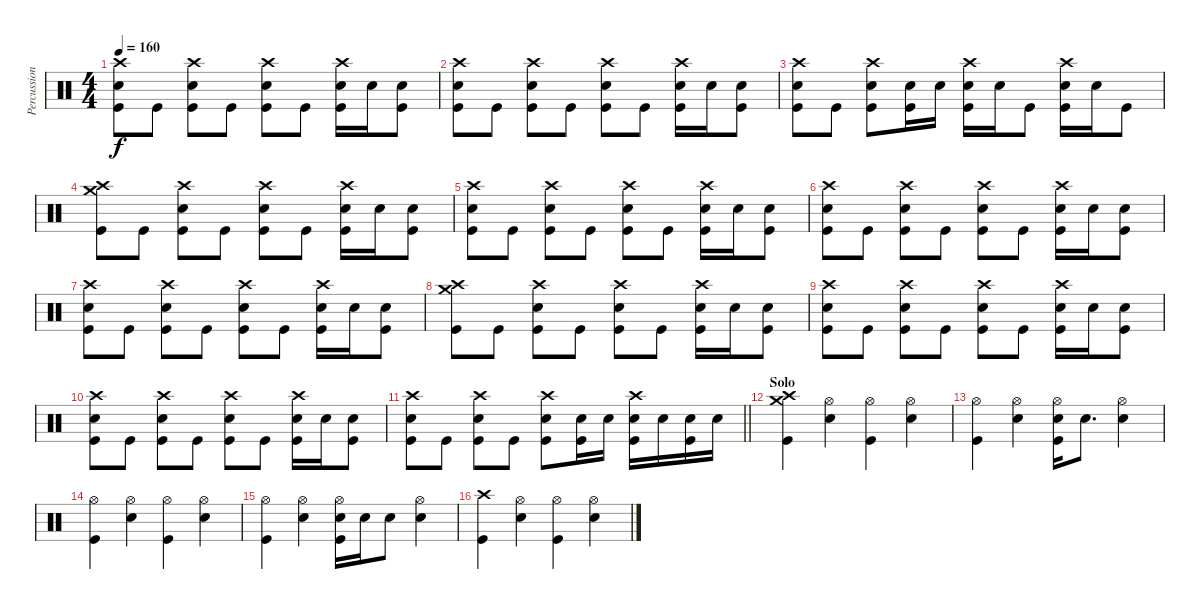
\track ("Percussion" "Percussion") {instrument percussion}
\staff {score}
\articulation defaults
\ts (4 4)
\tempo 160
\clef neutral
\ks c
("Crash high (hit)" "Electric Snare (hit)" "Kick (hit)").8{dy f} "Kick (hit)".8 ("Crash high (hit)" "Electric Snare (hit)" "Kick (hit)").8 "Kick (hit)".8 ("Crash high (hit)" "Electric Snare (hit)" "Kick (hit)").8 "Kick (hit)".8 ("Crash high (hit)" "Electric Snare (hit)" "Kick (hit)").16 "Electric Snare (hit)".16 ("Electric Snare (hit)" "Kick (hit)").8 |
("Crash high (hit)" "Electric Snare (hit)" "Kick (hit)").8 "Kick (hit)".8 ("Crash high (hit)" "Electric Snare (hit)" "Kick (hit)").8 "Kick (hit)".8 ("Crash high (hit)" "Electric Snare (hit)" "Kick (hit)").8 "Kick (hit)".8 ("Crash high (hit)" "Electric Snare (hit)" "Kick (hit)").16 "Electric Snare (hit)".16 ("Electric Snare (hit)" "Kick (hit)").8 |
("Crash high (hit)" "Electric Snare (hit)" "Kick (hit)").8 "Kick (hit)".8 ("Crash high (hit)" "Electric Snare (hit)" "Kick (hit)").8 ("Electric Snare (hit)" "Kick (hit)").16 "Electric Snare (hit)".16 ("Crash high (hit)" "Electric Snare (hit)" "Kick (hit)").16 "Electric Snare (hit)".16 "Kick (hit)".8 ("Crash high (hit)" "Electric Snare (hit)" "Kick (hit)").16 "Electric Snare (hit)".16 "Kick (hit)".8 |
("Crash high (hit)" "Crash medium (hit)" "Kick (hit)").8 "Kick (hit)".8 ("Crash high (hit)" "Electric Snare (hit)" "Kick (hit)").8 "Kick (hit)".8 ("Crash high (hit)" "Electric Snare (hit)" "Kick (hit)").8 "Kick (hit)".8 ("Crash high (hit)" "Electric Snare (hit)" "Kick (hit)").16 "Electric Snare (hit)".16 ("Electric Snare (hit)" "Kick (hit)").8 |
("Crash high (hit)" "Electric Snare (hit)" "Kick (hit)").8 "Kick (hit)".8 ("Crash high (hit)" "Electric Snare (hit)" "Kick (hit)").8 "Kick (hit)".8 ("Crash high (hit)" "Electric Snare (hit)" "Kick (hit)").8 "Kick (hit)".8 ("Crash high (hit)" "Electric Snare (hit)" "Kick (hit)").16 "Electric Snare (hit)".16 ("Electric Snare (hit)" "Kick (hit)").8 |
("Crash high (hit)" "Electric Snare (hit)" "Kick (hit)").8 "Kick (hit)".8 ("Crash high (hit)" "Electric Snare (hit)" "Kick (hit)").8 "Kick (hit)".8 ("Crash high (hit)" "Electric Snare (hit)" "Kick (hit)").8 "Kick (hit)".8 ("Crash high (hit)" "Electric Snare (hit)" "Kick (hit)").16 "Electric Snare (hit)".16 ("Electric Snare (hit)" "Kick (hit)").8 |
("Crash high (hit)" "Electric Snare (hit)" "Kick (hit)").8 "Kick (hit)".8 ("Crash high (hit)" "Electric Snare (hit)" "Kick (hit)").8 "Kick (hit)".8 ("Crash high (hit)" "Electric Snare (hit)" "Kick (hit)").8 "Kick (hit)".8 ("Crash high (hit)" "Electric Snare (hit)" "Kick (hit)").16 "Electric Snare (hit)".16 ("Electric Snare (hit)" "Kick (hit)").8 |
("Crash high (hit)" "Crash medium (hit)" "Kick (hit)").8 "Kick (hit)".8 ("Crash high (hit)" "Electric Snare (hit)" "Kick (hit)").8 "Kick (hit)".8 ("Crash high (hit)" "Electric Snare (hit)" "Kick (hit)").8 "Kick (hit)".8 ("Crash high (hit)" "Electric Snare (hit)" "Kick (hit)").16 "Electric Snare (hit)".16 ("Electric Snare (hit)" "Kick (hit)").8 |
("Crash high (hit)" "Electric Snare (hit)" "Kick (hit)").8 "Kick (hit)".8 ("Crash high (hit)" "Electric Snare (hit)" "Kick (hit)").8 "Kick (hit)".8 ("Crash high (hit)" "Electric Snare (hit)" "Kick (hit)").8 "Kick (hit)".8 ("Crash high (hit)" "Electric Snare (hit)" "Kick (hit)").16 "Electric Snare (hit)".16 ("Electric Snare (hit)" "Kick (hit)").8 |
("Crash high (hit)" "Electric Snare (hit)" "Kick (hit)").8 "Kick (hit)".8 ("Crash high (hit)" "Electric Snare (hit)" "Kick (hit)").8 "Kick (hit)".8 ("Crash high (hit)" "Electric Snare (hit)" "Kick (hit)").8 "Kick (hit)".8 ("Crash high (hit)" "Electric Snare (hit)" "Kick (hit)").16 "Electric Snare (hit)".16 ("Electric Snare (hit)" "Kick (hit)").8 |
\barLineRight lightlight
("Crash high (hit)" "Electric Snare (hit)" "Kick (hit)").8 "Kick (hit)".8 ("Crash high (hit)" "Electric Snare (hit)" "Kick (hit)").8 "Kick (hit)".8 ("Crash high (hit)" "Electric Snare (hit)" "Kick (hit)").8 ("Electric Snare (hit)" "Kick (hit)").16 "Electric Snare (hit)".16 ("Crash high (hit)" "Electric Snare (hit)" "Kick (hit)").16 "Electric Snare (hit)".16 ("Electric Snare (hit)" "Kick (hit)").16 "Electric Snare (hit)".16 |
\section ("" "Solo")
("Crash high (hit)" "Crash medium (hit)" "Kick (hit)").4 ("Hi-Hat (open)" "Electric Snare (hit)").4 ("Hi-Hat (open)" "Kick (hit)").4 ("Hi-Hat (open)" "Electric Snare (hit)").4 |
("Hi-Hat (open)" "Kick (hit)").4 ("Hi-Hat (open)" "Electric Snare (hit)").4 ("Hi-Hat (open)" "Electric Snare (hit)" "Kick (hit)").16 "Electric Snare (hit)".8{d} ("Hi-Hat (open)" "Electric Snare (hit)").4 |
("Hi-Hat (open)" "Kick (hit)").4 ("Hi-Hat (open)" "Electric Snare (hit)").4 ("Hi-Hat (open)" "Kick (hit)").4 ("Hi-Hat (open)" "Electric Snare (hit)").4 |
("Hi-Hat (open)" "Kick (hit)").4 ("Hi-Hat (open)" "Electric Snare (hit)").4 ("Hi-Hat (open)" "Electric Snare (hit)" "Kick (hit)").16 "Electric Snare (hit)".16 "Electric Snare (hit)".8 ("Hi-Hat (open)" "Electric Snare (hit)").4 |
("Crash high (hit)" "Kick (hit)").4 ("Hi-Hat (open)" "Electric Snare (hit)").4 ("Hi-Hat (open)" "Kick (hit)").4 ("Hi-Hat (open)" "Electric Snare (hit)").4
